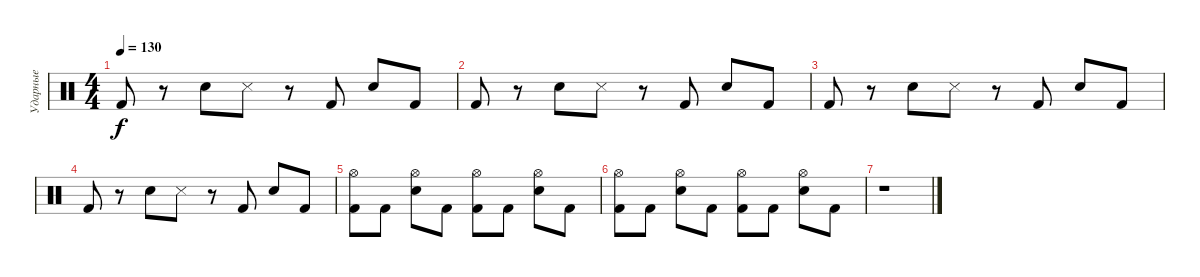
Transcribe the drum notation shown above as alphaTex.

\track ("Ударные" "Ударные") {instrument percussion}
\staff {score}
\articulation defaults
\ts (4 4)
\tempo 130
\clef neutral
\ks c "Kick (hit) 2".8{dy f}
r.8 "Electric Snare (hit)".8 "Snare (side stick) 3".8 r.8 "Kick (hit) 2".8 "Electric Snare (hit)".8 "Kick (hit) 2".8 |
"Kick (hit) 2".8 r.8 "Electric Snare (hit)".8 "Snare (side stick) 3".8 r.8 "Kick (hit) 2".8 "Electric Snare (hit)".8 "Kick (hit) 2".8 |
"Kick (hit) 2".8 r.8 "Electric Snare (hit)".8 "Snare (side stick) 3".8 r.8 "Kick (hit) 2".8 "Electric Snare (hit)".8 "Kick (hit) 2".8 |
"Kick (hit) 2".8 r.8 "Electric Snare (hit)".8 "Snare (side stick) 3".8 r.8 "Kick (hit) 2".8 "Electric Snare (hit)".8 "Kick (hit) 2".8 |
("Hi-Hat (open)" "Kick (hit) 2").8 "Kick (hit) 2".8 ("Electric Snare (hit)" "Hi-Hat (open)").8 "Kick (hit) 2".8 ("Kick (hit) 2" "Hi-Hat (open)").8 "Kick (hit) 2".8 ("Hi-Hat (open)" "Electric Snare (hit)").8 "Kick (hit) 2".8 |
("Hi-Hat (open)" "Kick (hit) 2").8 "Kick (hit) 2".8 ("Hi-Hat (open)" "Electric Snare (hit)").8 "Kick (hit) 2".8 ("Kick (hit) 2" "Hi-Hat (open)").8 "Kick (hit) 2".8 ("Electric Snare (hit)" "Hi-Hat (open)").8 "Kick (hit) 2".8 |
r.1
